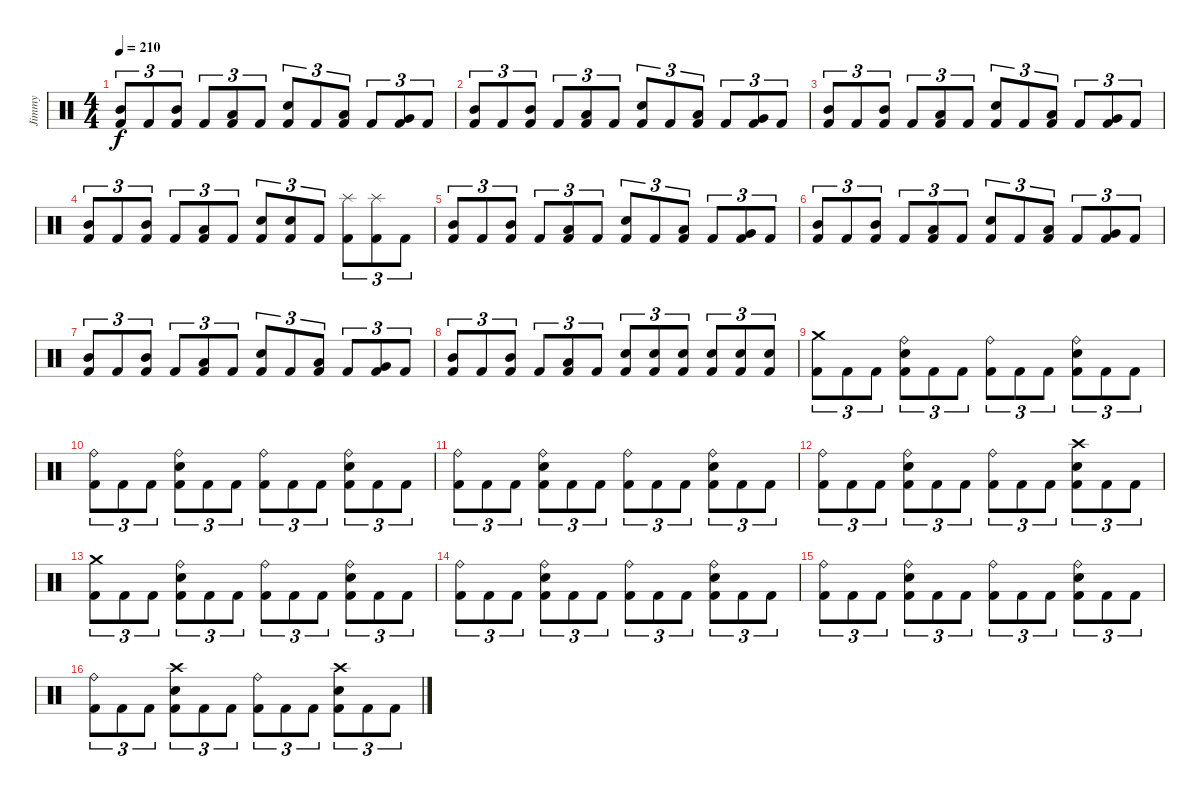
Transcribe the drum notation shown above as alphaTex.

\track ("Jimmy" "Jimmy") {instrument percussion}
\staff {score}
\articulation defaults
\ts (4 4)
\tempo 210
\clef neutral
\ks c
("Mid Tom (hit)" "Kick (hit) 2").8{tu (3 2) dy f} "Kick (hit) 2".8{tu (3 2)} ("Mid Tom (hit)" "Kick (hit) 2").8{tu (3 2)} "Kick (hit) 2".8{tu (3 2)} ("Low Tom (hit)" "Kick (hit) 2").8{tu (3 2)} "Kick (hit) 2".8{tu (3 2)} ("Electric Snare (hit)" "Kick (hit) 2").8{tu (3 2)} "Kick (hit) 2".8{tu (3 2)} ("Low Tom (hit)" "Kick (hit) 2").8{tu (3 2)} "Kick (hit) 2".8{tu (3 2)} ("Very Low Tom (hit)" "Kick (hit) 2").8{tu (3 2)} "Kick (hit) 2".8{tu (3 2)} |
("Mid Tom (hit)" "Kick (hit) 2").8{tu (3 2)} "Kick (hit) 2".8{tu (3 2)} ("Mid Tom (hit)" "Kick (hit) 2").8{tu (3 2)} "Kick (hit) 2".8{tu (3 2)} ("Low Tom (hit)" "Kick (hit) 2").8{tu (3 2)} "Kick (hit) 2".8{tu (3 2)} ("Electric Snare (hit)" "Kick (hit) 2").8{tu (3 2)} "Kick (hit) 2".8{tu (3 2)} ("Low Tom (hit)" "Kick (hit) 2").8{tu (3 2)} "Kick (hit) 2".8{tu (3 2)} ("Very Low Tom (hit)" "Kick (hit) 2").8{tu (3 2)} "Kick (hit) 2".8{tu (3 2)} |
("Mid Tom (hit)" "Kick (hit) 2").8{tu (3 2)} "Kick (hit) 2".8{tu (3 2)} ("Mid Tom (hit)" "Kick (hit) 2").8{tu (3 2)} "Kick (hit) 2".8{tu (3 2)} ("Low Tom (hit)" "Kick (hit) 2").8{tu (3 2)} "Kick (hit) 2".8{tu (3 2)} ("Electric Snare (hit)" "Kick (hit) 2").8{tu (3 2)} "Kick (hit) 2".8{tu (3 2)} ("Low Tom (hit)" "Kick (hit) 2").8{tu (3 2)} "Kick (hit) 2".8{tu (3 2)} ("Very Low Tom (hit)" "Kick (hit) 2").8{tu (3 2)} "Kick (hit) 2".8{tu (3 2)} |
("Mid Tom (hit)" "Kick (hit) 2").8{tu (3 2)} "Kick (hit) 2".8{tu (3 2)} ("Mid Tom (hit)" "Kick (hit) 2").8{tu (3 2)} "Kick (hit) 2".8{tu (3 2)} ("Low Tom (hit)" "Kick (hit) 2").8{tu (3 2)} "Kick (hit) 2".8{tu (3 2)} ("Electric Snare (hit)" "Kick (hit) 2").8{tu (3 2)} ("Electric Snare (hit)" "Kick (hit) 2").8{tu (3 2)} "Kick (hit) 2".8{tu (3 2)} ("Splash (hit)" "Kick (hit) 2").8{tu (3 2)} ("Splash (hit)" "Kick (hit) 2").8{tu (3 2)} "Kick (hit) 2".8{tu (3 2)} |
("Mid Tom (hit)" "Kick (hit) 2").8{tu (3 2)} "Kick (hit) 2".8{tu (3 2)} ("Mid Tom (hit)" "Kick (hit) 2").8{tu (3 2)} "Kick (hit) 2".8{tu (3 2)} ("Low Tom (hit)" "Kick (hit) 2").8{tu (3 2)} "Kick (hit) 2".8{tu (3 2)} ("Electric Snare (hit)" "Kick (hit) 2").8{tu (3 2)} "Kick (hit) 2".8{tu (3 2)} ("Low Tom (hit)" "Kick (hit) 2").8{tu (3 2)} "Kick (hit) 2".8{tu (3 2)} ("Very Low Tom (hit)" "Kick (hit) 2").8{tu (3 2)} "Kick (hit) 2".8{tu (3 2)} |
("Mid Tom (hit)" "Kick (hit) 2").8{tu (3 2)} "Kick (hit) 2".8{tu (3 2)} ("Mid Tom (hit)" "Kick (hit) 2").8{tu (3 2)} "Kick (hit) 2".8{tu (3 2)} ("Low Tom (hit)" "Kick (hit) 2").8{tu (3 2)} "Kick (hit) 2".8{tu (3 2)} ("Electric Snare (hit)" "Kick (hit) 2").8{tu (3 2)} "Kick (hit) 2".8{tu (3 2)} ("Low Tom (hit)" "Kick (hit) 2").8{tu (3 2)} "Kick (hit) 2".8{tu (3 2)} ("Very Low Tom (hit)" "Kick (hit) 2").8{tu (3 2)} "Kick (hit) 2".8{tu (3 2)} |
("Mid Tom (hit)" "Kick (hit) 2").8{tu (3 2)} "Kick (hit) 2".8{tu (3 2)} ("Mid Tom (hit)" "Kick (hit) 2").8{tu (3 2)} "Kick (hit) 2".8{tu (3 2)} ("Low Tom (hit)" "Kick (hit) 2").8{tu (3 2)} "Kick (hit) 2".8{tu (3 2)} ("Electric Snare (hit)" "Kick (hit) 2").8{tu (3 2)} "Kick (hit) 2".8{tu (3 2)} ("Low Tom (hit)" "Kick (hit) 2").8{tu (3 2)} "Kick (hit) 2".8{tu (3 2)} ("Very Low Tom (hit)" "Kick (hit) 2").8{tu (3 2)} "Kick (hit) 2".8{tu (3 2)} |
("Mid Tom (hit)" "Kick (hit) 2").8{tu (3 2)} "Kick (hit) 2".8{tu (3 2)} ("Mid Tom (hit)" "Kick (hit) 2").8{tu (3 2)} "Kick (hit) 2".8{tu (3 2)} ("Low Tom (hit)" "Kick (hit) 2").8{tu (3 2)} "Kick (hit) 2".8{tu (3 2)} ("Electric Snare (hit)" "Kick (hit) 2").8{tu (3 2)} ("Electric Snare (hit)" "Kick (hit) 2").8{tu (3 2)} ("Electric Snare (hit)" "Kick (hit) 2").8{tu (3 2)} ("Electric Snare (hit)" "Kick (hit) 2").8{tu (3 2)} ("Electric Snare (hit)" "Kick (hit) 2").8{tu (3 2)} ("Electric Snare (hit)" "Kick (hit) 2").8{tu (3 2)} |
("Crash medium (hit)" "Kick (hit) 2").8{tu (3 2)} "Kick (hit) 2".8{tu (3 2)} "Kick (hit) 2".8{tu (3 2)} ("Ride (bell)" "Electric Snare (hit)" "Kick (hit) 2").8{tu (3 2)} "Kick (hit) 2".8{tu (3 2)} "Kick (hit) 2".8{tu (3 2)} ("Ride (bell)" "Kick (hit) 2").8{tu (3 2)} "Kick (hit) 2".8{tu (3 2)} "Kick (hit) 2".8{tu (3 2)} ("Ride (bell)" "Electric Snare (hit)" "Kick (hit) 2").8{tu (3 2)} "Kick (hit) 2".8{tu (3 2)} "Kick (hit) 2".8{tu (3 2)} |
("Ride (bell)" "Kick (hit) 2").8{tu (3 2)} "Kick (hit) 2".8{tu (3 2)} "Kick (hit) 2".8{tu (3 2)} ("Ride (bell)" "Electric Snare (hit)" "Kick (hit) 2").8{tu (3 2)} "Kick (hit) 2".8{tu (3 2)} "Kick (hit) 2".8{tu (3 2)} ("Ride (bell)" "Kick (hit) 2").8{tu (3 2)} "Kick (hit) 2".8{tu (3 2)} "Kick (hit) 2".8{tu (3 2)} ("Ride (bell)" "Electric Snare (hit)" "Kick (hit) 2").8{tu (3 2)} "Kick (hit) 2".8{tu (3 2)} "Kick (hit) 2".8{tu (3 2)} |
("Ride (bell)" "Kick (hit) 2").8{tu (3 2)} "Kick (hit) 2".8{tu (3 2)} "Kick (hit) 2".8{tu (3 2)} ("Ride (bell)" "Electric Snare (hit)" "Kick (hit) 2").8{tu (3 2)} "Kick (hit) 2".8{tu (3 2)} "Kick (hit) 2".8{tu (3 2)} ("Ride (bell)" "Kick (hit) 2").8{tu (3 2)} "Kick (hit) 2".8{tu (3 2)} "Kick (hit) 2".8{tu (3 2)} ("Ride (bell)" "Electric Snare (hit)" "Kick (hit) 2").8{tu (3 2)} "Kick (hit) 2".8{tu (3 2)} "Kick (hit) 2".8{tu (3 2)} |
("Ride (bell)" "Kick (hit) 2").8{tu (3 2)} "Kick (hit) 2".8{tu (3 2)} "Kick (hit) 2".8{tu (3 2)} ("Ride (bell)" "Electric Snare (hit)" "Kick (hit) 2").8{tu (3 2)} "Kick (hit) 2".8{tu (3 2)} "Kick (hit) 2".8{tu (3 2)} ("Ride (bell)" "Kick (hit) 2").8{tu (3 2)} "Kick (hit) 2".8{tu (3 2)} "Kick (hit) 2".8{tu (3 2)} ("Crash high (hit)" "Electric Snare (hit)" "Kick (hit) 2").8{tu (3 2)} "Kick (hit) 2".8{tu (3 2)} "Kick (hit) 2".8{tu (3 2)} |
("Crash medium (hit)" "Kick (hit) 2").8{tu (3 2)} "Kick (hit) 2".8{tu (3 2)} "Kick (hit) 2".8{tu (3 2)} ("Ride (bell)" "Electric Snare (hit)" "Kick (hit) 2").8{tu (3 2)} "Kick (hit) 2".8{tu (3 2)} "Kick (hit) 2".8{tu (3 2)} ("Ride (bell)" "Kick (hit) 2").8{tu (3 2)} "Kick (hit) 2".8{tu (3 2)} "Kick (hit) 2".8{tu (3 2)} ("Ride (bell)" "Electric Snare (hit)" "Kick (hit) 2").8{tu (3 2)} "Kick (hit) 2".8{tu (3 2)} "Kick (hit) 2".8{tu (3 2)} |
("Ride (bell)" "Kick (hit) 2").8{tu (3 2)} "Kick (hit) 2".8{tu (3 2)} "Kick (hit) 2".8{tu (3 2)} ("Ride (bell)" "Electric Snare (hit)" "Kick (hit) 2").8{tu (3 2)} "Kick (hit) 2".8{tu (3 2)} "Kick (hit) 2".8{tu (3 2)} ("Ride (bell)" "Kick (hit) 2").8{tu (3 2)} "Kick (hit) 2".8{tu (3 2)} "Kick (hit) 2".8{tu (3 2)} ("Ride (bell)" "Electric Snare (hit)" "Kick (hit) 2").8{tu (3 2)} "Kick (hit) 2".8{tu (3 2)} "Kick (hit) 2".8{tu (3 2)} |
("Ride (bell)" "Kick (hit) 2").8{tu (3 2)} "Kick (hit) 2".8{tu (3 2)} "Kick (hit) 2".8{tu (3 2)} ("Ride (bell)" "Electric Snare (hit)" "Kick (hit) 2").8{tu (3 2)} "Kick (hit) 2".8{tu (3 2)} "Kick (hit) 2".8{tu (3 2)} ("Ride (bell)" "Kick (hit) 2").8{tu (3 2)} "Kick (hit) 2".8{tu (3 2)} "Kick (hit) 2".8{tu (3 2)} ("Ride (bell)" "Electric Snare (hit)" "Kick (hit) 2").8{tu (3 2)} "Kick (hit) 2".8{tu (3 2)} "Kick (hit) 2".8{tu (3 2)} |
("Ride (bell)" "Kick (hit) 2").8{tu (3 2)} "Kick (hit) 2".8{tu (3 2)} "Kick (hit) 2".8{tu (3 2)} ("Crash high (hit)" "Electric Snare (hit)" "Kick (hit) 2").8{tu (3 2)} "Kick (hit) 2".8{tu (3 2)} "Kick (hit) 2".8{tu (3 2)} ("Ride (bell)" "Kick (hit) 2").8{tu (3 2)} "Kick (hit) 2".8{tu (3 2)} "Kick (hit) 2".8{tu (3 2)} ("Crash high (hit)" "Electric Snare (hit)" "Kick (hit) 2").8{tu (3 2)} "Kick (hit) 2".8{tu (3 2)} "Kick (hit) 2".8{tu (3 2)}
